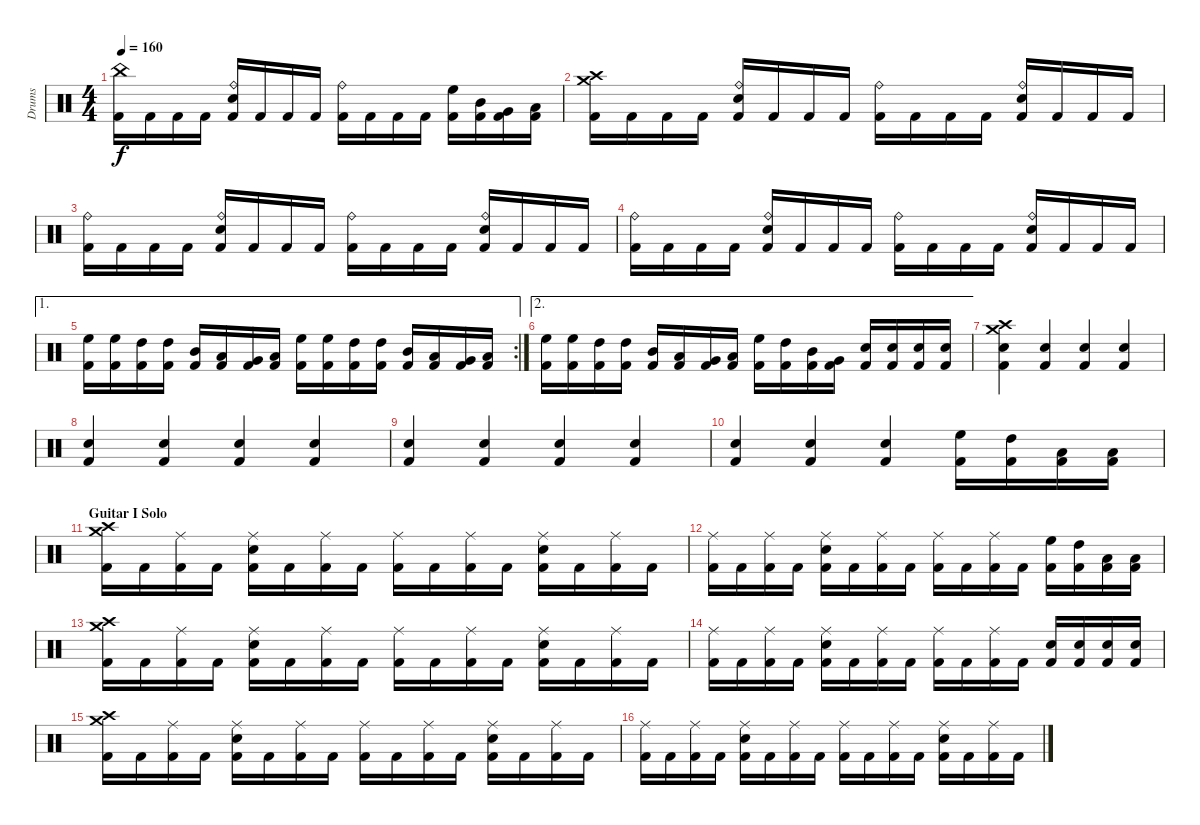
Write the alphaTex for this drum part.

\track ("Drums" "Drums") {instrument percussion}
\staff {score}
\articulation defaults
\ts (4 4)
\tempo 160
\clef neutral
\ks c
("China (hit)" "Kick (hit) 2").16{dy f} "Kick (hit) 2".16 "Kick (hit) 2".16 "Kick (hit) 2".16 ("Ride (bell)" "Electric Snare (hit)" "Kick (hit) 2").16 "Kick (hit) 2".16 "Kick (hit) 2".16 "Kick (hit) 2".16 ("Ride (bell)" "Kick (hit) 2").16 "Kick (hit) 2".16 "Kick (hit) 2".16 "Kick (hit) 2".16 ("High Floor Tom (hit)" "Kick (hit) 2").16 ("Mid Tom (hit)" "Kick (hit) 2").16 ("Very Low Tom (hit)" "Kick (hit) 2").16 ("Low Floor Tom (hit)" "Kick (hit) 2").16 |
("Crash medium (hit)" "Crash high (hit)" "Kick (hit) 2").16{volume 16} "Kick (hit) 2".16 "Kick (hit) 2".16 "Kick (hit) 2".16 ("Ride (bell)" "Electric Snare (hit)" "Kick (hit) 2").16 "Kick (hit) 2".16 "Kick (hit) 2".16 "Kick (hit) 2".16 ("Ride (bell)" "Kick (hit) 2").16 "Kick (hit) 2".16 "Kick (hit) 2".16 "Kick (hit) 2".16 ("Ride (bell)" "Electric Snare (hit)" "Kick (hit) 2").16 "Kick (hit) 2".16 "Kick (hit) 2".16 "Kick (hit) 2".16 |
("Ride (bell)" "Kick (hit) 2").16 "Kick (hit) 2".16 "Kick (hit) 2".16 "Kick (hit) 2".16 ("Ride (bell)" "Electric Snare (hit)" "Kick (hit) 2").16 "Kick (hit) 2".16 "Kick (hit) 2".16 "Kick (hit) 2".16 ("Ride (bell)" "Kick (hit) 2").16 "Kick (hit) 2".16 "Kick (hit) 2".16 "Kick (hit) 2".16 ("Ride (bell)" "Electric Snare (hit)" "Kick (hit) 2").16 "Kick (hit) 2".16 "Kick (hit) 2".16 "Kick (hit) 2".16 |
("Ride (bell)" "Kick (hit) 2").16 "Kick (hit) 2".16 "Kick (hit) 2".16 "Kick (hit) 2".16 ("Ride (bell)" "Electric Snare (hit)" "Kick (hit) 2").16 "Kick (hit) 2".16 "Kick (hit) 2".16 "Kick (hit) 2".16 ("Ride (bell)" "Kick (hit) 2").16 "Kick (hit) 2".16 "Kick (hit) 2".16 "Kick (hit) 2".16 ("Ride (bell)" "Electric Snare (hit)" "Kick (hit) 2").16 "Kick (hit) 2".16 "Kick (hit) 2".16 "Kick (hit) 2".16 |
\ae 1
\rc 2
("High Floor Tom (hit)" "Kick (hit) 2").16 ("High Floor Tom (hit)" "Kick (hit) 2").16 ("High Tom (hit)" "Kick (hit) 2").16 ("High Tom (hit)" "Kick (hit) 2").16 ("Mid Tom (hit)" "Kick (hit) 2").16 ("Low Tom (hit)" "Kick (hit) 2").16 ("Very Low Tom (hit)" "Kick (hit) 2").16 ("Low Floor Tom (hit)" "Kick (hit) 2").16 ("High Floor Tom (hit)" "Kick (hit) 2").16 ("High Floor Tom (hit)" "Kick (hit) 2").16 ("High Tom (hit)" "Kick (hit) 2").16 ("High Tom (hit)" "Kick (hit) 2").16 ("Mid Tom (hit)" "Kick (hit) 2").16 ("Low Tom (hit)" "Kick (hit) 2").16 ("Very Low Tom (hit)" "Kick (hit) 2").16 ("Low Floor Tom (hit)" "Kick (hit) 2").16 |
\ae 2
("High Floor Tom (hit)" "Kick (hit) 2").16 ("High Floor Tom (hit)" "Kick (hit) 2").16 ("High Tom (hit)" "Kick (hit) 2").16 ("High Tom (hit)" "Kick (hit) 2").16 ("Mid Tom (hit)" "Kick (hit) 2").16 ("Low Tom (hit)" "Kick (hit) 2").16 ("Very Low Tom (hit)" "Kick (hit) 2").16 ("Low Floor Tom (hit)" "Kick (hit) 2").16 ("High Floor Tom (hit)" "Kick (hit) 2").16 ("High Tom (hit)" "Kick (hit) 2").16 ("Mid Tom (hit)" "Kick (hit) 2").16 ("Very Low Tom (hit)" "Kick (hit) 2").16 ("Electric Snare (hit)" "Kick (hit) 2").16 ("Electric Snare (hit)" "Kick (hit) 2").16 ("Electric Snare (hit)" "Kick (hit) 2").16 ("Electric Snare (hit)" "Kick (hit) 2").16 |
("Crash medium (hit)" "Crash high (hit)" "Electric Snare (hit)" "Kick (hit) 2").4 ("Electric Snare (hit)" "Kick (hit) 2").4 ("Electric Snare (hit)" "Kick (hit) 2").4 ("Electric Snare (hit)" "Kick (hit) 2").4 |
("Electric Snare (hit)" "Kick (hit) 2").4 ("Electric Snare (hit)" "Kick (hit) 2").4 ("Electric Snare (hit)" "Kick (hit) 2").4 ("Electric Snare (hit)" "Kick (hit) 2").4 |
("Electric Snare (hit)" "Kick (hit) 2").4 ("Electric Snare (hit)" "Kick (hit) 2").4 ("Electric Snare (hit)" "Kick (hit) 2").4 ("Electric Snare (hit)" "Kick (hit) 2").4 |
("Electric Snare (hit)" "Kick (hit) 2").4 ("Electric Snare (hit)" "Kick (hit) 2").4 ("Electric Snare (hit)" "Kick (hit) 2").4 ("High Floor Tom (hit)" "Kick (hit) 2").16 ("High Tom (hit)" "Kick (hit) 2").16 ("Low Tom (hit)" "Kick (hit) 2").16 ("Low Floor Tom (hit)" "Kick (hit) 2").16 |
\section ("" "Guitar I Solo")
("Crash medium (hit)" "Crash high (hit)" "Kick (hit) 2").16 "Kick (hit) 2".16 ("Ride (middle)" "Kick (hit) 2").16 "Kick (hit) 2".16 ("Ride (middle)" "Electric Snare (hit)" "Kick (hit) 2").16 "Kick (hit) 2".16 ("Ride (middle)" "Kick (hit) 2").16 "Kick (hit) 2".16 ("Ride (middle)" "Kick (hit) 2").16 "Kick (hit) 2".16 ("Ride (middle)" "Kick (hit) 2").16 "Kick (hit) 2".16 ("Ride (middle)" "Electric Snare (hit)" "Kick (hit) 2").16 "Kick (hit) 2".16 ("Ride (middle)" "Kick (hit) 2").16 "Kick (hit) 2".16 |
("Ride (middle)" "Kick (hit) 2").16 "Kick (hit) 2".16 ("Ride (middle)" "Kick (hit) 2").16 "Kick (hit) 2".16 ("Ride (middle)" "Electric Snare (hit)" "Kick (hit) 2").16 "Kick (hit) 2".16 ("Ride (middle)" "Kick (hit) 2").16 "Kick (hit) 2".16 ("Ride (middle)" "Kick (hit) 2").16 "Kick (hit) 2".16 ("Ride (middle)" "Kick (hit) 2").16 "Kick (hit) 2".16 ("High Floor Tom (hit)" "Kick (hit) 2").16 ("High Tom (hit)" "Kick (hit) 2").16 ("Low Tom (hit)" "Kick (hit) 2").16 ("Low Floor Tom (hit)" "Kick (hit) 2").16 |
("Crash medium (hit)" "Crash high (hit)" "Kick (hit) 2").16 "Kick (hit) 2".16 ("Ride (middle)" "Kick (hit) 2").16 "Kick (hit) 2".16 ("Ride (middle)" "Electric Snare (hit)" "Kick (hit) 2").16 "Kick (hit) 2".16 ("Ride (middle)" "Kick (hit) 2").16 "Kick (hit) 2".16 ("Ride (middle)" "Kick (hit) 2").16 "Kick (hit) 2".16 ("Ride (middle)" "Kick (hit) 2").16 "Kick (hit) 2".16 ("Ride (middle)" "Electric Snare (hit)" "Kick (hit) 2").16 "Kick (hit) 2".16 ("Ride (middle)" "Kick (hit) 2").16 "Kick (hit) 2".16 |
("Ride (middle)" "Kick (hit) 2").16 "Kick (hit) 2".16 ("Ride (middle)" "Kick (hit) 2").16 "Kick (hit) 2".16 ("Ride (middle)" "Electric Snare (hit)" "Kick (hit) 2").16 "Kick (hit) 2".16 ("Ride (middle)" "Kick (hit) 2").16 "Kick (hit) 2".16 ("Ride (middle)" "Kick (hit) 2").16 "Kick (hit) 2".16 ("Ride (middle)" "Kick (hit) 2").16 "Kick (hit) 2".16 ("Electric Snare (hit)" "Kick (hit) 2").16 ("Electric Snare (hit)" "Kick (hit) 2").16 ("Electric Snare (hit)" "Kick (hit) 2").16 ("Electric Snare (hit)" "Kick (hit) 2").16 |
("Crash medium (hit)" "Crash high (hit)" "Kick (hit) 2").16 "Kick (hit) 2".16 ("Ride (middle)" "Kick (hit) 2").16 "Kick (hit) 2".16 ("Ride (middle)" "Electric Snare (hit)" "Kick (hit) 2").16 "Kick (hit) 2".16 ("Ride (middle)" "Kick (hit) 2").16 "Kick (hit) 2".16 ("Ride (middle)" "Kick (hit) 2").16 "Kick (hit) 2".16 ("Ride (middle)" "Kick (hit) 2").16 "Kick (hit) 2".16 ("Ride (middle)" "Electric Snare (hit)" "Kick (hit) 2").16 "Kick (hit) 2".16 ("Ride (middle)" "Kick (hit) 2").16 "Kick (hit) 2".16 |
("Ride (middle)" "Kick (hit) 2").16 "Kick (hit) 2".16 ("Ride (middle)" "Kick (hit) 2").16 "Kick (hit) 2".16 ("Ride (middle)" "Electric Snare (hit)" "Kick (hit) 2").16 "Kick (hit) 2".16 ("Ride (middle)" "Kick (hit) 2").16 "Kick (hit) 2".16 ("Ride (middle)" "Kick (hit) 2").16 "Kick (hit) 2".16 ("Ride (middle)" "Kick (hit) 2").16 "Kick (hit) 2".16 ("Ride (middle)" "Electric Snare (hit)" "Kick (hit) 2").16 "Kick (hit) 2".16 ("Ride (middle)" "Kick (hit) 2").16 "Kick (hit) 2".16
